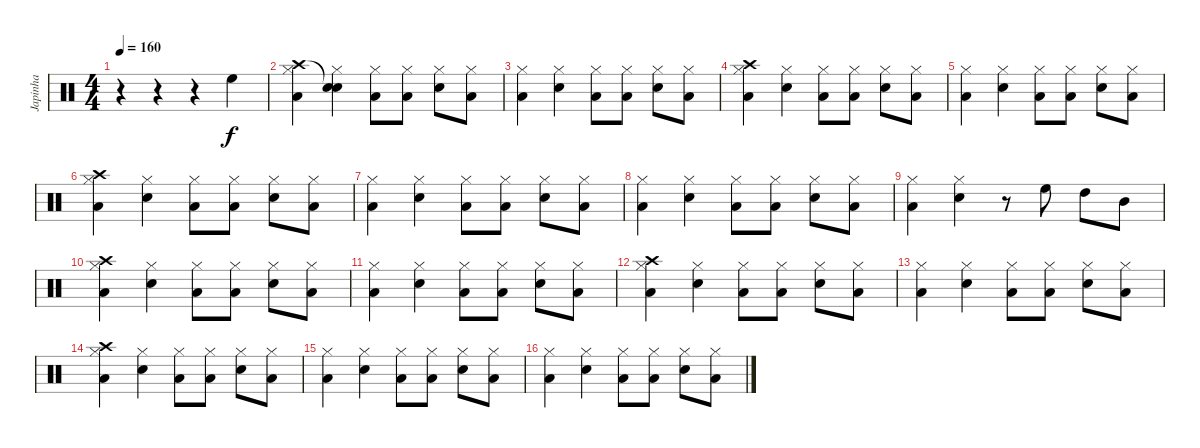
\track ("Japinha" "Japinha") {instrument percussion}
\staff {score}
\articulation defaults
\ts (4 4)
\tempo 160
\clef neutral
\ks c
r.4{dy f} r.4 r.4 "High Floor Tom (hit)".4 |
("Crash high (hit)" "Hi-Hat (closed)" "Low Tom (hit)").4 ("Snare (hit)"{t} "Hi-Hat (closed)" "Snare (hit) 2").4 ("Hi-Hat (closed)" "Low Tom (hit)").8 ("Hi-Hat (closed)" "Low Tom (hit)").8 ("Hi-Hat (closed)" "Snare (hit) 2").8 ("Hi-Hat (closed)" "Low Tom (hit)").8 |
("Hi-Hat (closed)" "Low Tom (hit)").4 ("Hi-Hat (closed)" "Snare (hit) 2").4 ("Hi-Hat (closed)" "Low Tom (hit)").8 ("Hi-Hat (closed)" "Low Tom (hit)").8 ("Hi-Hat (closed)" "Snare (hit) 2").8 ("Hi-Hat (closed)" "Low Tom (hit)").8 |
("Crash high (hit)" "Hi-Hat (closed)" "Low Tom (hit)").4 ("Hi-Hat (closed)" "Snare (hit) 2").4 ("Hi-Hat (closed)" "Low Tom (hit)").8 ("Hi-Hat (closed)" "Low Tom (hit)").8 ("Hi-Hat (closed)" "Snare (hit) 2").8 ("Hi-Hat (closed)" "Low Tom (hit)").8 |
("Hi-Hat (closed)" "Low Tom (hit)").4 ("Hi-Hat (closed)" "Snare (hit) 2").4 ("Hi-Hat (closed)" "Low Tom (hit)").8 ("Hi-Hat (closed)" "Low Tom (hit)").8 ("Hi-Hat (closed)" "Snare (hit) 2").8 ("Hi-Hat (closed)" "Low Tom (hit)").8 |
("Crash high (hit)" "Hi-Hat (closed)" "Low Tom (hit)").4 ("Hi-Hat (closed)" "Snare (hit) 2").4 ("Hi-Hat (closed)" "Low Tom (hit)").8 ("Hi-Hat (closed)" "Low Tom (hit)").8 ("Hi-Hat (closed)" "Snare (hit) 2").8 ("Hi-Hat (closed)" "Low Tom (hit)").8 |
("Hi-Hat (closed)" "Low Tom (hit)").4 ("Hi-Hat (closed)" "Snare (hit) 2").4 ("Hi-Hat (closed)" "Low Tom (hit)").8 ("Hi-Hat (closed)" "Low Tom (hit)").8 ("Hi-Hat (closed)" "Snare (hit) 2").8 ("Hi-Hat (closed)" "Low Tom (hit)").8 |
("Hi-Hat (closed)" "Low Tom (hit)").4 ("Hi-Hat (closed)" "Snare (hit) 2").4 ("Hi-Hat (closed)" "Low Tom (hit)").8 ("Hi-Hat (closed)" "Low Tom (hit)").8 ("Hi-Hat (closed)" "Snare (hit) 2").8 ("Hi-Hat (closed)" "Low Tom (hit)").8 |
("Hi-Hat (closed)" "Low Tom (hit)").4 ("Hi-Hat (closed)" "Snare (hit) 2").4 r.8 "High Floor Tom (hit)".8 "High Tom (hit)".8 "Mid Tom (hit)".8 |
("Crash high (hit)" "Hi-Hat (closed)" "Low Tom (hit)").4 ("Hi-Hat (closed)" "Snare (hit) 2").4 ("Hi-Hat (closed)" "Low Tom (hit)").8 ("Hi-Hat (closed)" "Low Tom (hit)").8 ("Hi-Hat (closed)" "Snare (hit) 2").8 ("Hi-Hat (closed)" "Low Tom (hit)").8 |
("Hi-Hat (closed)" "Low Tom (hit)").4 ("Hi-Hat (closed)" "Snare (hit) 2").4 ("Hi-Hat (closed)" "Low Tom (hit)").8 ("Hi-Hat (closed)" "Low Tom (hit)").8 ("Hi-Hat (closed)" "Snare (hit) 2").8 ("Hi-Hat (closed)" "Low Tom (hit)").8 |
("Crash high (hit)" "Hi-Hat (closed)" "Low Tom (hit)").4 ("Hi-Hat (closed)" "Snare (hit) 2").4 ("Hi-Hat (closed)" "Low Tom (hit)").8 ("Hi-Hat (closed)" "Low Tom (hit)").8 ("Hi-Hat (closed)" "Snare (hit) 2").8 ("Hi-Hat (closed)" "Low Tom (hit)").8 |
("Hi-Hat (closed)" "Low Tom (hit)").4 ("Hi-Hat (closed)" "Snare (hit) 2").4 ("Hi-Hat (closed)" "Low Tom (hit)").8 ("Hi-Hat (closed)" "Low Tom (hit)").8 ("Hi-Hat (closed)" "Snare (hit) 2").8 ("Hi-Hat (closed)" "Low Tom (hit)").8 |
("Crash high (hit)" "Hi-Hat (closed)" "Low Tom (hit)").4 ("Hi-Hat (closed)" "Snare (hit) 2").4 ("Hi-Hat (closed)" "Low Tom (hit)").8 ("Hi-Hat (closed)" "Low Tom (hit)").8 ("Hi-Hat (closed)" "Snare (hit) 2").8 ("Hi-Hat (closed)" "Low Tom (hit)").8 |
("Hi-Hat (closed)" "Low Tom (hit)").4 ("Hi-Hat (closed)" "Snare (hit) 2").4 ("Hi-Hat (closed)" "Low Tom (hit)").8 ("Hi-Hat (closed)" "Low Tom (hit)").8 ("Hi-Hat (closed)" "Snare (hit) 2").8 ("Hi-Hat (closed)" "Low Tom (hit)").8 |
("Hi-Hat (closed)" "Low Tom (hit)").4 ("Hi-Hat (closed)" "Snare (hit) 2").4 ("Hi-Hat (closed)" "Low Tom (hit)").8 ("Hi-Hat (closed)" "Low Tom (hit)").8 ("Hi-Hat (closed)" "Snare (hit) 2").8 ("Hi-Hat (closed)" "Low Tom (hit)").8
